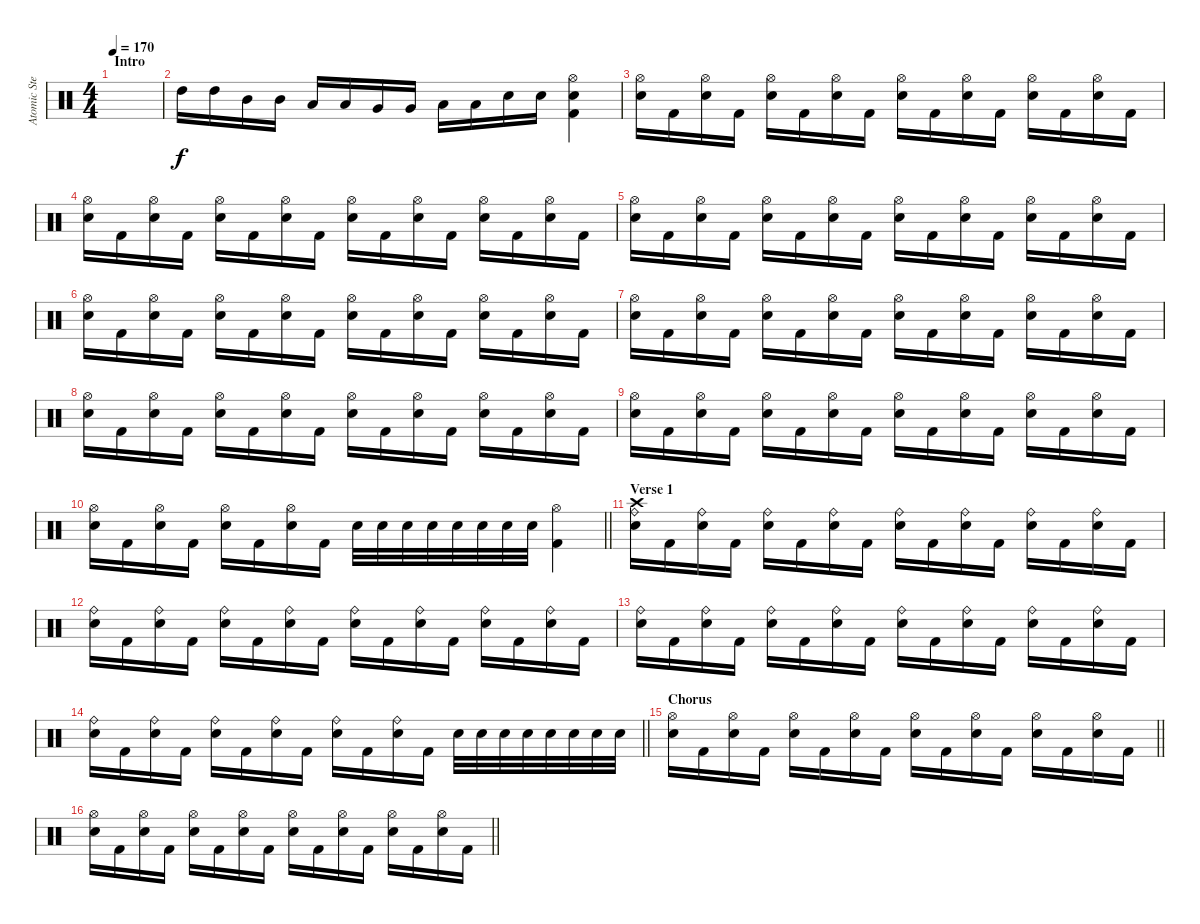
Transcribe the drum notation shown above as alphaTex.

\track ("Atomic Steif" "Atomic Ste") {instrument percussion}
\staff {score}
\articulation defaults
\ts (4 4)
\section ("" "Intro")
\tempo 170
\clef neutral
\ks c
|
"High Tom (hit)".16 "High Tom (hit)".16 "Mid Tom (hit)".16 "Mid Tom (hit)".16 "Low Tom (hit)".16 "Low Tom (hit)".16 "Very Low Tom (hit)".16 "Very Low Tom (hit)".16 "Low Floor Tom (hit)".16 "Low Floor Tom (hit)".16 "Snare (hit) 2".16 "Snare (hit) 2".16 ("Hi-Hat (open)" "Electric Snare (hit)" "Kick (hit) 2").4 |
("Hi-Hat (open)" "Electric Snare (hit)").16 "Kick (hit) 2".16 ("Hi-Hat (open)" "Electric Snare (hit)").16 "Kick (hit) 2".16 ("Hi-Hat (open)" "Electric Snare (hit)").16 "Kick (hit) 2".16 ("Hi-Hat (open)" "Electric Snare (hit)").16 "Kick (hit) 2".16 ("Hi-Hat (open)" "Electric Snare (hit)").16 "Kick (hit) 2".16 ("Hi-Hat (open)" "Electric Snare (hit)").16 "Kick (hit) 2".16 ("Hi-Hat (open)" "Electric Snare (hit)").16 "Kick (hit) 2".16 ("Hi-Hat (open)" "Electric Snare (hit)").16 "Kick (hit) 2".16 |
("Hi-Hat (open)" "Electric Snare (hit)").16 "Kick (hit) 2".16 ("Hi-Hat (open)" "Electric Snare (hit)").16 "Kick (hit) 2".16 ("Hi-Hat (open)" "Electric Snare (hit)").16 "Kick (hit) 2".16 ("Hi-Hat (open)" "Electric Snare (hit)").16 "Kick (hit) 2".16 ("Hi-Hat (open)" "Electric Snare (hit)").16 "Kick (hit) 2".16 ("Hi-Hat (open)" "Electric Snare (hit)").16 "Kick (hit) 2".16 ("Hi-Hat (open)" "Electric Snare (hit)").16 "Kick (hit) 2".16 ("Hi-Hat (open)" "Electric Snare (hit)").16 "Kick (hit) 2".16 |
("Hi-Hat (open)" "Electric Snare (hit)").16 "Kick (hit) 2".16 ("Hi-Hat (open)" "Electric Snare (hit)").16 "Kick (hit) 2".16 ("Hi-Hat (open)" "Electric Snare (hit)").16 "Kick (hit) 2".16 ("Hi-Hat (open)" "Electric Snare (hit)").16 "Kick (hit) 2".16 ("Hi-Hat (open)" "Electric Snare (hit)").16 "Kick (hit) 2".16 ("Hi-Hat (open)" "Electric Snare (hit)").16 "Kick (hit) 2".16 ("Hi-Hat (open)" "Electric Snare (hit)").16 "Kick (hit) 2".16 ("Hi-Hat (open)" "Electric Snare (hit)").16 "Kick (hit) 2".16 |
("Hi-Hat (open)" "Electric Snare (hit)").16 "Kick (hit) 2".16 ("Hi-Hat (open)" "Electric Snare (hit)").16 "Kick (hit) 2".16 ("Hi-Hat (open)" "Electric Snare (hit)").16 "Kick (hit) 2".16 ("Hi-Hat (open)" "Electric Snare (hit)").16 "Kick (hit) 2".16 ("Hi-Hat (open)" "Electric Snare (hit)").16 "Kick (hit) 2".16 ("Hi-Hat (open)" "Electric Snare (hit)").16 "Kick (hit) 2".16 ("Hi-Hat (open)" "Electric Snare (hit)").16 "Kick (hit) 2".16 ("Hi-Hat (open)" "Electric Snare (hit)").16 "Kick (hit) 2".16 |
("Hi-Hat (open)" "Electric Snare (hit)").16 "Kick (hit) 2".16 ("Hi-Hat (open)" "Electric Snare (hit)").16 "Kick (hit) 2".16 ("Hi-Hat (open)" "Electric Snare (hit)").16 "Kick (hit) 2".16 ("Hi-Hat (open)" "Electric Snare (hit)").16 "Kick (hit) 2".16 ("Hi-Hat (open)" "Electric Snare (hit)").16 "Kick (hit) 2".16 ("Hi-Hat (open)" "Electric Snare (hit)").16 "Kick (hit) 2".16 ("Hi-Hat (open)" "Electric Snare (hit)").16 "Kick (hit) 2".16 ("Hi-Hat (open)" "Electric Snare (hit)").16 "Kick (hit) 2".16 |
("Hi-Hat (open)" "Electric Snare (hit)").16 "Kick (hit) 2".16 ("Hi-Hat (open)" "Electric Snare (hit)").16 "Kick (hit) 2".16 ("Hi-Hat (open)" "Electric Snare (hit)").16 "Kick (hit) 2".16 ("Hi-Hat (open)" "Electric Snare (hit)").16 "Kick (hit) 2".16 ("Hi-Hat (open)" "Electric Snare (hit)").16 "Kick (hit) 2".16 ("Hi-Hat (open)" "Electric Snare (hit)").16 "Kick (hit) 2".16 ("Hi-Hat (open)" "Electric Snare (hit)").16 "Kick (hit) 2".16 ("Hi-Hat (open)" "Electric Snare (hit)").16 "Kick (hit) 2".16 |
("Hi-Hat (open)" "Electric Snare (hit)").16 "Kick (hit) 2".16 ("Hi-Hat (open)" "Electric Snare (hit)").16 "Kick (hit) 2".16 ("Hi-Hat (open)" "Electric Snare (hit)").16 "Kick (hit) 2".16 ("Hi-Hat (open)" "Electric Snare (hit)").16 "Kick (hit) 2".16 ("Hi-Hat (open)" "Electric Snare (hit)").16 "Kick (hit) 2".16 ("Hi-Hat (open)" "Electric Snare (hit)").16 "Kick (hit) 2".16 ("Hi-Hat (open)" "Electric Snare (hit)").16 "Kick (hit) 2".16 ("Hi-Hat (open)" "Electric Snare (hit)").16 "Kick (hit) 2".16 |
\barLineRight lightlight
("Hi-Hat (open)" "Electric Snare (hit)").16 "Kick (hit) 2".16 ("Hi-Hat (open)" "Electric Snare (hit)").16 "Kick (hit) 2".16 ("Hi-Hat (open)" "Electric Snare (hit)").16 "Kick (hit) 2".16 ("Hi-Hat (open)" "Electric Snare (hit)").16 "Kick (hit) 2".16 "Electric Snare (hit)".32 "Electric Snare (hit)".32 "Electric Snare (hit)".32 "Electric Snare (hit)".32 "Electric Snare (hit)".32 "Electric Snare (hit)".32 "Electric Snare (hit)".32 "Electric Snare (hit)".32 ("Hi-Hat (open)" "Kick (hit) 2").4 |
\section ("" "Verse 1")
("Crash high (hit)" "Ride (bell)" "Electric Snare (hit)").16 "Kick (hit) 2".16 ("Ride (bell)" "Electric Snare (hit)").16 "Kick (hit) 2".16 ("Ride (bell)" "Electric Snare (hit)").16 "Kick (hit) 2".16 ("Ride (bell)" "Electric Snare (hit)").16 "Kick (hit) 2".16 ("Ride (bell)" "Electric Snare (hit)").16 "Kick (hit) 2".16 ("Ride (bell)" "Electric Snare (hit)").16 "Kick (hit) 2".16 ("Ride (bell)" "Electric Snare (hit)").16 "Kick (hit) 2".16 ("Ride (bell)" "Electric Snare (hit)").16 "Kick (hit) 2".16 |
("Ride (bell)" "Electric Snare (hit)").16 "Kick (hit) 2".16 ("Ride (bell)" "Electric Snare (hit)").16 "Kick (hit) 2".16 ("Ride (bell)" "Electric Snare (hit)").16 "Kick (hit) 2".16 ("Ride (bell)" "Electric Snare (hit)").16 "Kick (hit) 2".16 ("Ride (bell)" "Electric Snare (hit)").16 "Kick (hit) 2".16 ("Ride (bell)" "Electric Snare (hit)").16 "Kick (hit) 2".16 ("Ride (bell)" "Electric Snare (hit)").16 "Kick (hit) 2".16 ("Ride (bell)" "Electric Snare (hit)").16 "Kick (hit) 2".16 |
("Ride (bell)" "Electric Snare (hit)").16 "Kick (hit) 2".16 ("Ride (bell)" "Electric Snare (hit)").16 "Kick (hit) 2".16 ("Ride (bell)" "Electric Snare (hit)").16 "Kick (hit) 2".16 ("Ride (bell)" "Electric Snare (hit)").16 "Kick (hit) 2".16 ("Ride (bell)" "Electric Snare (hit)").16 "Kick (hit) 2".16 ("Ride (bell)" "Electric Snare (hit)").16 "Kick (hit) 2".16 ("Ride (bell)" "Electric Snare (hit)").16 "Kick (hit) 2".16 ("Ride (bell)" "Electric Snare (hit)").16 "Kick (hit) 2".16 |
\barLineRight lightlight
("Ride (bell)" "Electric Snare (hit)").16 "Kick (hit) 2".16 ("Ride (bell)" "Electric Snare (hit)").16 "Kick (hit) 2".16 ("Ride (bell)" "Electric Snare (hit)").16 "Kick (hit) 2".16 ("Ride (bell)" "Electric Snare (hit)").16 "Kick (hit) 2".16 ("Ride (bell)" "Electric Snare (hit)").16 "Kick (hit) 2".16 ("Ride (bell)" "Electric Snare (hit)").16 "Kick (hit) 2".16 "Electric Snare (hit)".32 "Electric Snare (hit)".32 "Electric Snare (hit)".32 "Electric Snare (hit)".32 "Electric Snare (hit)".32 "Electric Snare (hit)".32 "Electric Snare (hit)".32 "Electric Snare (hit)".32 |
\section ("" "Chorus")
\barLineRight lightlight
("Hi-Hat (open)" "Electric Snare (hit)").16 "Kick (hit) 2".16 ("Hi-Hat (open)" "Electric Snare (hit)").16 "Kick (hit) 2".16 ("Hi-Hat (open)" "Electric Snare (hit)").16 "Kick (hit) 2".16 ("Hi-Hat (open)" "Electric Snare (hit)").16 "Kick (hit) 2".16 ("Hi-Hat (open)" "Electric Snare (hit)").16 "Kick (hit) 2".16 ("Hi-Hat (open)" "Electric Snare (hit)").16 "Kick (hit) 2".16 ("Hi-Hat (open)" "Electric Snare (hit)").16 "Kick (hit) 2".16 ("Hi-Hat (open)" "Electric Snare (hit)").16 "Kick (hit) 2".16 |
\barLineRight lightlight
("Hi-Hat (open)" "Electric Snare (hit)").16 "Kick (hit) 2".16 ("Hi-Hat (open)" "Electric Snare (hit)").16 "Kick (hit) 2".16 ("Hi-Hat (open)" "Electric Snare (hit)").16 "Kick (hit) 2".16 ("Hi-Hat (open)" "Electric Snare (hit)").16 "Kick (hit) 2".16 ("Hi-Hat (open)" "Electric Snare (hit)").16 "Kick (hit) 2".16 ("Hi-Hat (open)" "Electric Snare (hit)").16 "Kick (hit) 2".16 ("Hi-Hat (open)" "Electric Snare (hit)").16 "Kick (hit) 2".16 ("Hi-Hat (open)" "Electric Snare (hit)").16 "Kick (hit) 2".16
